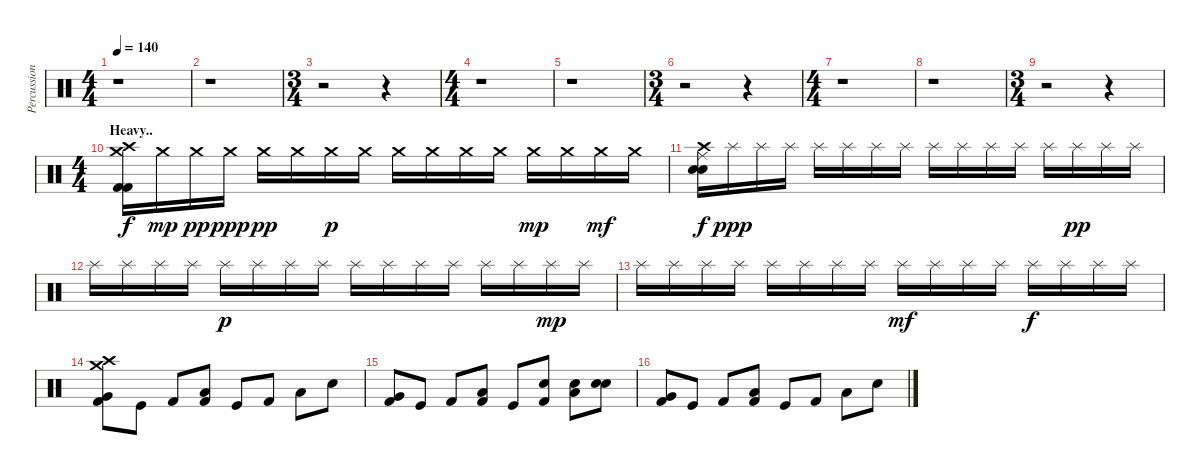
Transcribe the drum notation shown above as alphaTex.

\track ("Percussions" "Percussion") {instrument percussion}
\staff {score}
\articulation defaults
\ts (4 4)
\tempo 140
\clef neutral
\ks c
r.1{dy f} |
r.1 |
\ts (3 4)
r.2 r.4 |
\ts (4 4)
r.1 |
r.1 |
\ts (3 4)
r.2 r.4 |
\ts (4 4)
r.1 |
r.1 |
\ts (3 4)
r.2 r.4 |
\ts (4 4)
\section ("" "Heavy..")
("Crash medium (hit)" "Crash high (hit)" "Kick (hit) 2" "Kick (hit) 2").16 "Crash medium (hit)".16{dy mp} "Crash medium (hit)".16{dy pp} "Crash medium (hit)".16{dy ppp} "Crash medium (hit)".16{dy pp} "Crash medium (hit)".16 "Crash medium (hit)".16{dy p} "Crash medium (hit)".16 "Crash medium (hit)".16 "Crash medium (hit)".16 "Crash medium (hit)".16 "Crash medium (hit)".16 "Crash medium (hit)".16{dy mp} "Crash medium (hit)".16 "Crash medium (hit)".16{dy mf} "Crash medium (hit)".16 |
("Crash high (hit)" "Ride (middle)" "Snare (hit) 2" "Snare (hit) 2").16{dy f} "Splash (hit)".16{dy ppp} "Splash (hit)".16 "Splash (hit)".16 "Splash (hit)".16 "Splash (hit)".16 "Splash (hit)".16 "Splash (hit)".16 "Splash (hit)".16 "Splash (hit)".16 "Splash (hit)".16 "Splash (hit)".16 "Splash (hit)".16 "Splash (hit)".16{dy pp} "Splash (hit)".16 "Splash (hit)".16 |
"Splash (hit)".16 "Splash (hit)".16 "Splash (hit)".16 "Splash (hit)".16 "Splash (hit)".16{dy p} "Splash (hit)".16 "Splash (hit)".16 "Splash (hit)".16 "Splash (hit)".16 "Splash (hit)".16 "Splash (hit)".16 "Splash (hit)".16 "Splash (hit)".16 "Splash (hit)".16 "Splash (hit)".16{dy mp} "Splash (hit)".16 |
"Splash (hit)".16 "Splash (hit)".16 "Splash (hit)".16 "Splash (hit)".16 "Splash (hit)".16 "Splash (hit)".16 "Splash (hit)".16 "Splash (hit)".16 "Splash (hit)".16{dy mf} "Splash (hit)".16 "Splash (hit)".16 "Splash (hit)".16 "Splash (hit)".16{dy f} "Splash (hit)".16 "Splash (hit)".16 "Splash (hit)".16 |
("Crash medium (hit)" "Crash high (hit)" "Kick (hit) 2" "Very Low Tom (hit)").8 "Kick (hit)".8 "Kick (hit) 2".8 ("Kick (hit) 2" "Low Floor Tom (hit)").8 "Kick (hit)".8 "Kick (hit) 2".8 "Low Floor Tom (hit)".8 "Snare (hit) 2".8 |
("Kick (hit) 2" "Very Low Tom (hit)").8 "Kick (hit)".8 "Kick (hit) 2".8 ("Kick (hit) 2" "Low Floor Tom (hit)").8 "Kick (hit)".8 ("Snare (hit) 2" "Kick (hit) 2").8 ("Snare (hit) 2" "Low Floor Tom (hit)").8 ("Snare (hit) 2" "Snare (hit) 2").8 |
("Kick (hit) 2" "Very Low Tom (hit)").8 "Kick (hit)".8 "Kick (hit) 2".8 ("Kick (hit) 2" "Low Floor Tom (hit)").8 "Kick (hit)".8 "Kick (hit) 2".8 "Low Floor Tom (hit)".8 "Snare (hit) 2".8
